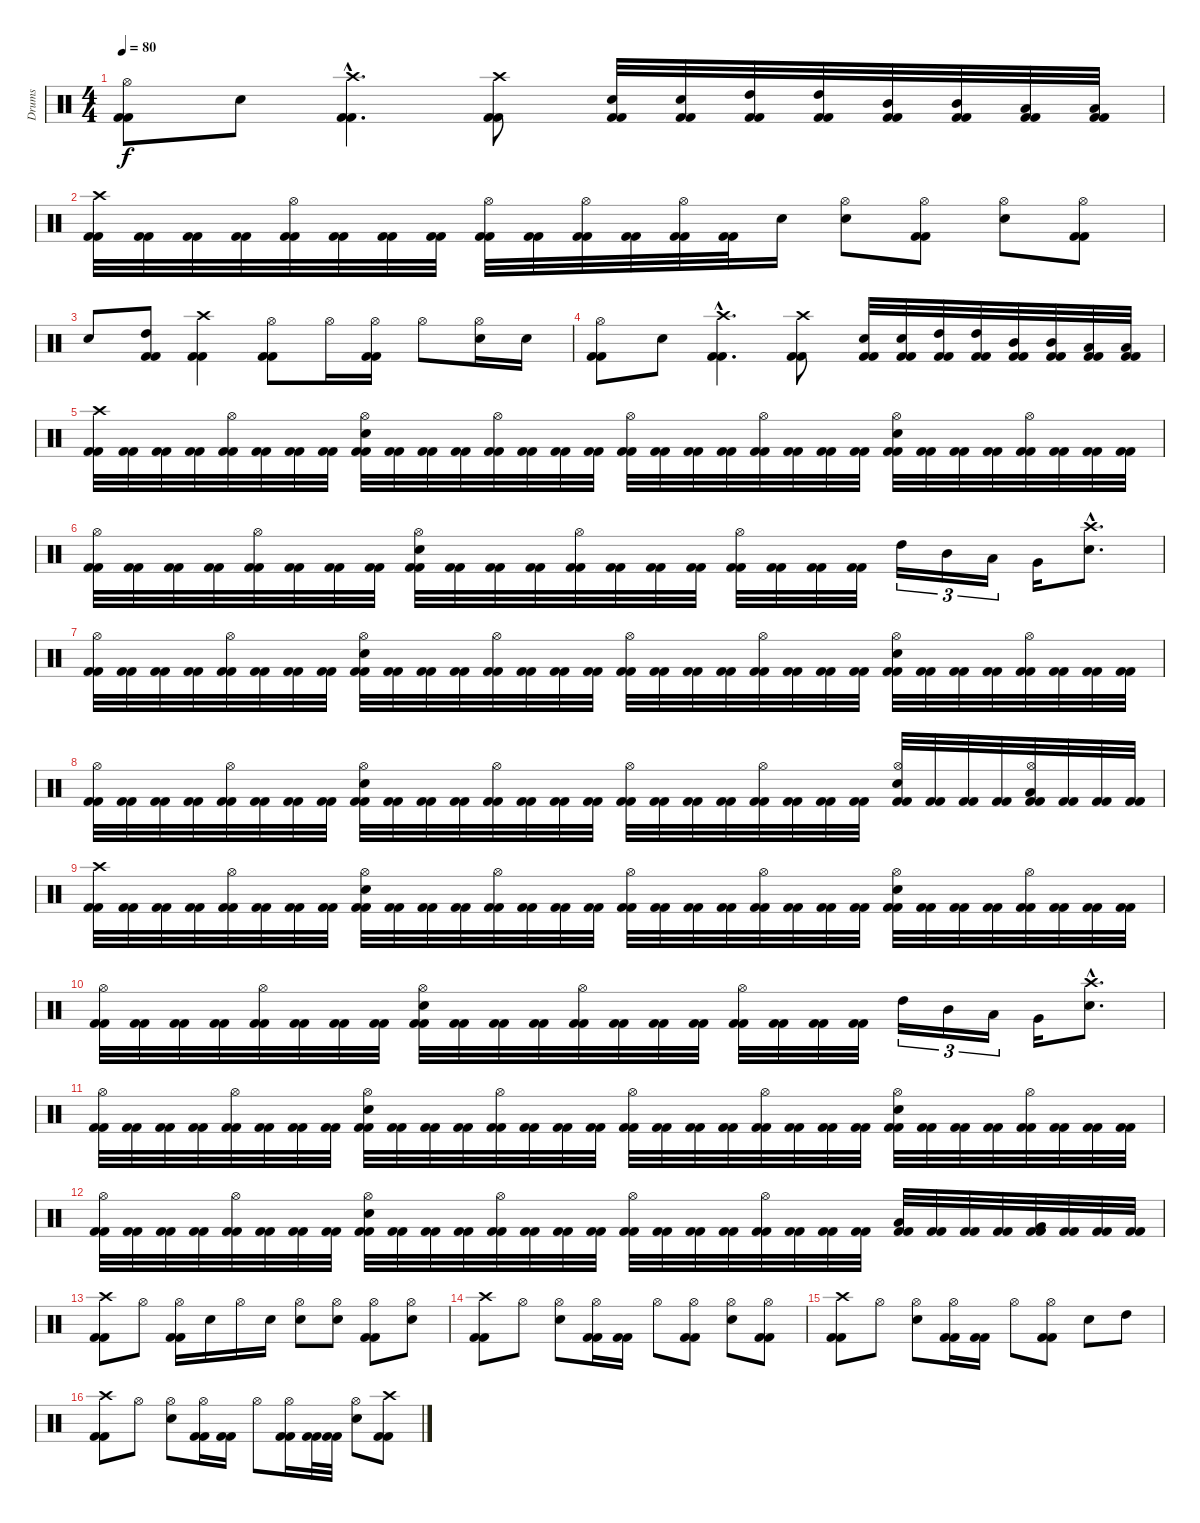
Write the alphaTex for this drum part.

\track ("Drums" "Drums") {instrument percussion}
\staff {score}
\articulation defaults
\ts (4 4)
\tempo 80
\clef neutral
\ks c
("Kick (hit) 2" "Kick (hit) 2" "Hi-Hat (open)").8{dy f} "Snare (hit) 2".8 ("Kick (hit) 2"{hac} "Kick (hit) 2"{hac} "Crash high (hit)"{hac}).4{d} ("Kick (hit) 2" "Kick (hit) 2" "Crash high (hit)").8 ("Kick (hit) 2" "Kick (hit) 2" "Snare (hit) 2").32 ("Kick (hit) 2" "Kick (hit) 2" "Snare (hit) 2").32 ("Kick (hit) 2" "Kick (hit) 2" "High Tom (hit)").32 ("Kick (hit) 2" "Kick (hit) 2" "High Tom (hit)").32 ("Kick (hit) 2" "Kick (hit) 2" "Mid Tom (hit)").32 ("Kick (hit) 2" "Kick (hit) 2" "Mid Tom (hit)").32 ("Kick (hit) 2" "Kick (hit) 2" "Low Tom (hit)").32 ("Kick (hit) 2" "Kick (hit) 2" "Low Tom (hit)").32 |
("Kick (hit) 2" "Kick (hit) 2" "Crash high (hit)").32 ("Kick (hit) 2" "Kick (hit) 2").32 ("Kick (hit) 2" "Kick (hit) 2").32 ("Kick (hit) 2" "Kick (hit) 2").32 ("Kick (hit) 2" "Kick (hit) 2" "Hi-Hat (open)").32 ("Kick (hit) 2" "Kick (hit) 2").32 ("Kick (hit) 2" "Kick (hit) 2").32 ("Kick (hit) 2" "Kick (hit) 2").32 ("Kick (hit) 2" "Kick (hit) 2" "Hi-Hat (open)").32 ("Kick (hit) 2" "Kick (hit) 2").32 ("Kick (hit) 2" "Kick (hit) 2" "Hi-Hat (open)").32 ("Kick (hit) 2" "Kick (hit) 2").32 ("Kick (hit) 2" "Kick (hit) 2" "Hi-Hat (open)").32 ("Kick (hit) 2" "Kick (hit) 2").32 "Snare (hit) 2".16 ("Snare (hit) 2" "Hi-Hat (open)").8 ("Kick (hit) 2" "Kick (hit) 2" "Hi-Hat (open)").8 ("Snare (hit) 2" "Hi-Hat (open)").8 ("Kick (hit) 2" "Kick (hit) 2" "Hi-Hat (open)").8 |
"Snare (hit) 2".8 ("Kick (hit) 2" "Kick (hit) 2" "High Tom (hit)").8 ("Kick (hit) 2" "Kick (hit) 2" "Crash high (hit)").4 ("Kick (hit) 2" "Kick (hit) 2" "Hi-Hat (open)").8 "Hi-Hat (open)".16 ("Kick (hit) 2" "Kick (hit) 2" "Hi-Hat (open)").16 "Hi-Hat (open)".8 ("Snare (hit) 2" "Hi-Hat (open)").16 "Snare (hit) 2".16 |
("Kick (hit) 2" "Kick (hit) 2" "Hi-Hat (open)").8 "Snare (hit) 2".8 ("Kick (hit) 2"{hac} "Kick (hit) 2"{hac} "Crash high (hit)"{hac}).4{d} ("Kick (hit) 2" "Kick (hit) 2" "Crash high (hit)").8 ("Kick (hit) 2" "Kick (hit) 2" "Snare (hit) 2").32 ("Kick (hit) 2" "Kick (hit) 2" "Snare (hit) 2").32 ("Kick (hit) 2" "Kick (hit) 2" "High Tom (hit)").32 ("Kick (hit) 2" "Kick (hit) 2" "High Tom (hit)").32 ("Kick (hit) 2" "Kick (hit) 2" "Mid Tom (hit)").32 ("Kick (hit) 2" "Kick (hit) 2" "Mid Tom (hit)").32 ("Kick (hit) 2" "Kick (hit) 2" "Low Tom (hit)").32 ("Kick (hit) 2" "Kick (hit) 2" "Low Tom (hit)").32 |
("Kick (hit) 2" "Kick (hit) 2" "Crash high (hit)").32 ("Kick (hit) 2" "Kick (hit) 2").32 ("Kick (hit) 2" "Kick (hit) 2").32 ("Kick (hit) 2" "Kick (hit) 2").32 ("Kick (hit) 2" "Kick (hit) 2" "Hi-Hat (open)").32 ("Kick (hit) 2" "Kick (hit) 2").32 ("Kick (hit) 2" "Kick (hit) 2").32 ("Kick (hit) 2" "Kick (hit) 2").32 ("Kick (hit) 2" "Kick (hit) 2" "Snare (hit) 2" "Hi-Hat (open)").32 ("Kick (hit) 2" "Kick (hit) 2").32 ("Kick (hit) 2" "Kick (hit) 2").32 ("Kick (hit) 2" "Kick (hit) 2").32 ("Kick (hit) 2" "Kick (hit) 2" "Hi-Hat (open)").32 ("Kick (hit) 2" "Kick (hit) 2").32 ("Kick (hit) 2" "Kick (hit) 2").32 ("Kick (hit) 2" "Kick (hit) 2").32 ("Kick (hit) 2" "Kick (hit) 2" "Hi-Hat (open)").32 ("Kick (hit) 2" "Kick (hit) 2").32 ("Kick (hit) 2" "Kick (hit) 2").32 ("Kick (hit) 2" "Kick (hit) 2").32 ("Kick (hit) 2" "Kick (hit) 2" "Hi-Hat (open)").32 ("Kick (hit) 2" "Kick (hit) 2").32 ("Kick (hit) 2" "Kick (hit) 2").32 ("Kick (hit) 2" "Kick (hit) 2").32 ("Kick (hit) 2" "Kick (hit) 2" "Snare (hit) 2" "Hi-Hat (open)").32 ("Kick (hit) 2" "Kick (hit) 2").32 ("Kick (hit) 2" "Kick (hit) 2").32 ("Kick (hit) 2" "Kick (hit) 2").32 ("Kick (hit) 2" "Kick (hit) 2" "Hi-Hat (open)").32 ("Kick (hit) 2" "Kick (hit) 2").32 ("Kick (hit) 2" "Kick (hit) 2").32 ("Kick (hit) 2" "Kick (hit) 2").32 |
("Kick (hit) 2" "Kick (hit) 2" "Hi-Hat (open)").32 ("Kick (hit) 2" "Kick (hit) 2").32 ("Kick (hit) 2" "Kick (hit) 2").32 ("Kick (hit) 2" "Kick (hit) 2").32 ("Kick (hit) 2" "Kick (hit) 2" "Hi-Hat (open)").32 ("Kick (hit) 2" "Kick (hit) 2").32 ("Kick (hit) 2" "Kick (hit) 2").32 ("Kick (hit) 2" "Kick (hit) 2").32 ("Kick (hit) 2" "Kick (hit) 2" "Snare (hit) 2" "Hi-Hat (open)").32 ("Kick (hit) 2" "Kick (hit) 2").32 ("Kick (hit) 2" "Kick (hit) 2").32 ("Kick (hit) 2" "Kick (hit) 2").32 ("Kick (hit) 2" "Kick (hit) 2" "Hi-Hat (open)").32 ("Kick (hit) 2" "Kick (hit) 2").32 ("Kick (hit) 2" "Kick (hit) 2").32 ("Kick (hit) 2" "Kick (hit) 2").32 ("Kick (hit) 2" "Kick (hit) 2" "Hi-Hat (open)").32 ("Kick (hit) 2" "Kick (hit) 2").32 ("Kick (hit) 2" "Kick (hit) 2").32 ("Kick (hit) 2" "Kick (hit) 2").32 "High Tom (hit)".16{tu (3 2)} "Mid Tom (hit)".16{tu (3 2)} "Low Tom (hit)".16{tu (3 2)} "Very Low Tom (hit)".16 ("Crash high (hit)"{hac} "Snare (hit) 2"{hac}).8{d} |
("Kick (hit) 2" "Kick (hit) 2" "Hi-Hat (open)").32 ("Kick (hit) 2" "Kick (hit) 2").32 ("Kick (hit) 2" "Kick (hit) 2").32 ("Kick (hit) 2" "Kick (hit) 2").32 ("Kick (hit) 2" "Kick (hit) 2" "Hi-Hat (open)").32 ("Kick (hit) 2" "Kick (hit) 2").32 ("Kick (hit) 2" "Kick (hit) 2").32 ("Kick (hit) 2" "Kick (hit) 2").32 ("Kick (hit) 2" "Kick (hit) 2" "Snare (hit) 2" "Hi-Hat (open)").32 ("Kick (hit) 2" "Kick (hit) 2").32 ("Kick (hit) 2" "Kick (hit) 2").32 ("Kick (hit) 2" "Kick (hit) 2").32 ("Kick (hit) 2" "Kick (hit) 2" "Hi-Hat (open)").32 ("Kick (hit) 2" "Kick (hit) 2").32 ("Kick (hit) 2" "Kick (hit) 2").32 ("Kick (hit) 2" "Kick (hit) 2").32 ("Kick (hit) 2" "Kick (hit) 2" "Hi-Hat (open)").32 ("Kick (hit) 2" "Kick (hit) 2").32 ("Kick (hit) 2" "Kick (hit) 2").32 ("Kick (hit) 2" "Kick (hit) 2").32 ("Kick (hit) 2" "Kick (hit) 2" "Hi-Hat (open)").32 ("Kick (hit) 2" "Kick (hit) 2").32 ("Kick (hit) 2" "Kick (hit) 2").32 ("Kick (hit) 2" "Kick (hit) 2").32 ("Kick (hit) 2" "Kick (hit) 2" "Snare (hit) 2" "Hi-Hat (open)").32 ("Kick (hit) 2" "Kick (hit) 2").32 ("Kick (hit) 2" "Kick (hit) 2").32 ("Kick (hit) 2" "Kick (hit) 2").32 ("Kick (hit) 2" "Kick (hit) 2" "Hi-Hat (open)").32 ("Kick (hit) 2" "Kick (hit) 2").32 ("Kick (hit) 2" "Kick (hit) 2").32 ("Kick (hit) 2" "Kick (hit) 2").32 |
("Kick (hit) 2" "Kick (hit) 2" "Hi-Hat (open)").32 ("Kick (hit) 2" "Kick (hit) 2").32 ("Kick (hit) 2" "Kick (hit) 2").32 ("Kick (hit) 2" "Kick (hit) 2").32 ("Kick (hit) 2" "Kick (hit) 2" "Hi-Hat (open)").32 ("Kick (hit) 2" "Kick (hit) 2").32 ("Kick (hit) 2" "Kick (hit) 2").32 ("Kick (hit) 2" "Kick (hit) 2").32 ("Kick (hit) 2" "Kick (hit) 2" "Snare (hit) 2" "Hi-Hat (open)").32 ("Kick (hit) 2" "Kick (hit) 2").32 ("Kick (hit) 2" "Kick (hit) 2").32 ("Kick (hit) 2" "Kick (hit) 2").32 ("Kick (hit) 2" "Kick (hit) 2" "Hi-Hat (open)").32 ("Kick (hit) 2" "Kick (hit) 2").32 ("Kick (hit) 2" "Kick (hit) 2").32 ("Kick (hit) 2" "Kick (hit) 2").32 ("Kick (hit) 2" "Kick (hit) 2" "Hi-Hat (open)").32 ("Kick (hit) 2" "Kick (hit) 2").32 ("Kick (hit) 2" "Kick (hit) 2").32 ("Kick (hit) 2" "Kick (hit) 2").32 ("Kick (hit) 2" "Kick (hit) 2" "Hi-Hat (open)").32 ("Kick (hit) 2" "Kick (hit) 2").32 ("Kick (hit) 2" "Kick (hit) 2").32 ("Kick (hit) 2" "Kick (hit) 2").32 ("Kick (hit) 2" "Kick (hit) 2" "Snare (hit) 2" "Hi-Hat (open)").32 ("Kick (hit) 2" "Kick (hit) 2").32 ("Kick (hit) 2" "Kick (hit) 2").32 ("Kick (hit) 2" "Kick (hit) 2").32 ("Kick (hit) 2" "Kick (hit) 2" "Low Tom (hit)" "Hi-Hat (open)").32 ("Kick (hit) 2" "Kick (hit) 2").32 ("Kick (hit) 2" "Kick (hit) 2").32 ("Kick (hit) 2" "Kick (hit) 2").32 |
("Kick (hit) 2" "Kick (hit) 2" "Crash high (hit)").32 ("Kick (hit) 2" "Kick (hit) 2").32 ("Kick (hit) 2" "Kick (hit) 2").32 ("Kick (hit) 2" "Kick (hit) 2").32 ("Kick (hit) 2" "Kick (hit) 2" "Hi-Hat (open)").32 ("Kick (hit) 2" "Kick (hit) 2").32 ("Kick (hit) 2" "Kick (hit) 2").32 ("Kick (hit) 2" "Kick (hit) 2").32 ("Kick (hit) 2" "Kick (hit) 2" "Snare (hit) 2" "Hi-Hat (open)").32 ("Kick (hit) 2" "Kick (hit) 2").32 ("Kick (hit) 2" "Kick (hit) 2").32 ("Kick (hit) 2" "Kick (hit) 2").32 ("Kick (hit) 2" "Kick (hit) 2" "Hi-Hat (open)").32 ("Kick (hit) 2" "Kick (hit) 2").32 ("Kick (hit) 2" "Kick (hit) 2").32 ("Kick (hit) 2" "Kick (hit) 2").32 ("Kick (hit) 2" "Kick (hit) 2" "Hi-Hat (open)").32 ("Kick (hit) 2" "Kick (hit) 2").32 ("Kick (hit) 2" "Kick (hit) 2").32 ("Kick (hit) 2" "Kick (hit) 2").32 ("Kick (hit) 2" "Kick (hit) 2" "Hi-Hat (open)").32 ("Kick (hit) 2" "Kick (hit) 2").32 ("Kick (hit) 2" "Kick (hit) 2").32 ("Kick (hit) 2" "Kick (hit) 2").32 ("Kick (hit) 2" "Kick (hit) 2" "Snare (hit) 2" "Hi-Hat (open)").32 ("Kick (hit) 2" "Kick (hit) 2").32 ("Kick (hit) 2" "Kick (hit) 2").32 ("Kick (hit) 2" "Kick (hit) 2").32 ("Kick (hit) 2" "Kick (hit) 2" "Hi-Hat (open)").32 ("Kick (hit) 2" "Kick (hit) 2").32 ("Kick (hit) 2" "Kick (hit) 2").32 ("Kick (hit) 2" "Kick (hit) 2").32 |
("Kick (hit) 2" "Kick (hit) 2" "Hi-Hat (open)").32 ("Kick (hit) 2" "Kick (hit) 2").32 ("Kick (hit) 2" "Kick (hit) 2").32 ("Kick (hit) 2" "Kick (hit) 2").32 ("Kick (hit) 2" "Kick (hit) 2" "Hi-Hat (open)").32 ("Kick (hit) 2" "Kick (hit) 2").32 ("Kick (hit) 2" "Kick (hit) 2").32 ("Kick (hit) 2" "Kick (hit) 2").32 ("Kick (hit) 2" "Kick (hit) 2" "Snare (hit) 2" "Hi-Hat (open)").32 ("Kick (hit) 2" "Kick (hit) 2").32 ("Kick (hit) 2" "Kick (hit) 2").32 ("Kick (hit) 2" "Kick (hit) 2").32 ("Kick (hit) 2" "Kick (hit) 2" "Hi-Hat (open)").32 ("Kick (hit) 2" "Kick (hit) 2").32 ("Kick (hit) 2" "Kick (hit) 2").32 ("Kick (hit) 2" "Kick (hit) 2").32 ("Kick (hit) 2" "Kick (hit) 2" "Hi-Hat (open)").32 ("Kick (hit) 2" "Kick (hit) 2").32 ("Kick (hit) 2" "Kick (hit) 2").32 ("Kick (hit) 2" "Kick (hit) 2").32 "High Tom (hit)".16{tu (3 2)} "Mid Tom (hit)".16{tu (3 2)} "Low Tom (hit)".16{tu (3 2)} "Very Low Tom (hit)".16 ("Crash high (hit)"{hac} "Snare (hit) 2"{hac}).8{d} |
("Kick (hit) 2" "Kick (hit) 2" "Hi-Hat (open)").32 ("Kick (hit) 2" "Kick (hit) 2").32 ("Kick (hit) 2" "Kick (hit) 2").32 ("Kick (hit) 2" "Kick (hit) 2").32 ("Kick (hit) 2" "Kick (hit) 2" "Hi-Hat (open)").32 ("Kick (hit) 2" "Kick (hit) 2").32 ("Kick (hit) 2" "Kick (hit) 2").32 ("Kick (hit) 2" "Kick (hit) 2").32 ("Kick (hit) 2" "Kick (hit) 2" "Snare (hit) 2" "Hi-Hat (open)").32 ("Kick (hit) 2" "Kick (hit) 2").32 ("Kick (hit) 2" "Kick (hit) 2").32 ("Kick (hit) 2" "Kick (hit) 2").32 ("Kick (hit) 2" "Kick (hit) 2" "Hi-Hat (open)").32 ("Kick (hit) 2" "Kick (hit) 2").32 ("Kick (hit) 2" "Kick (hit) 2").32 ("Kick (hit) 2" "Kick (hit) 2").32 ("Kick (hit) 2" "Kick (hit) 2" "Hi-Hat (open)").32 ("Kick (hit) 2" "Kick (hit) 2").32 ("Kick (hit) 2" "Kick (hit) 2").32 ("Kick (hit) 2" "Kick (hit) 2").32 ("Kick (hit) 2" "Kick (hit) 2" "Hi-Hat (open)").32 ("Kick (hit) 2" "Kick (hit) 2").32 ("Kick (hit) 2" "Kick (hit) 2").32 ("Kick (hit) 2" "Kick (hit) 2").32 ("Kick (hit) 2" "Kick (hit) 2" "Snare (hit) 2" "Hi-Hat (open)").32 ("Kick (hit) 2" "Kick (hit) 2").32 ("Kick (hit) 2" "Kick (hit) 2").32 ("Kick (hit) 2" "Kick (hit) 2").32 ("Kick (hit) 2" "Kick (hit) 2" "Hi-Hat (open)").32 ("Kick (hit) 2" "Kick (hit) 2").32 ("Kick (hit) 2" "Kick (hit) 2").32 ("Kick (hit) 2" "Kick (hit) 2").32 |
("Kick (hit) 2" "Kick (hit) 2" "Hi-Hat (open)").32 ("Kick (hit) 2" "Kick (hit) 2").32 ("Kick (hit) 2" "Kick (hit) 2").32 ("Kick (hit) 2" "Kick (hit) 2").32 ("Kick (hit) 2" "Kick (hit) 2" "Hi-Hat (open)").32 ("Kick (hit) 2" "Kick (hit) 2").32 ("Kick (hit) 2" "Kick (hit) 2").32 ("Kick (hit) 2" "Kick (hit) 2").32 ("Kick (hit) 2" "Kick (hit) 2" "Snare (hit) 2" "Hi-Hat (open)").32 ("Kick (hit) 2" "Kick (hit) 2").32 ("Kick (hit) 2" "Kick (hit) 2").32 ("Kick (hit) 2" "Kick (hit) 2").32 ("Kick (hit) 2" "Kick (hit) 2" "Hi-Hat (open)").32 ("Kick (hit) 2" "Kick (hit) 2").32 ("Kick (hit) 2" "Kick (hit) 2").32 ("Kick (hit) 2" "Kick (hit) 2").32 ("Kick (hit) 2" "Kick (hit) 2" "Hi-Hat (open)").32 ("Kick (hit) 2" "Kick (hit) 2").32 ("Kick (hit) 2" "Kick (hit) 2").32 ("Kick (hit) 2" "Kick (hit) 2").32 ("Kick (hit) 2" "Kick (hit) 2" "Hi-Hat (open)").32 ("Kick (hit) 2" "Kick (hit) 2").32 ("Kick (hit) 2" "Kick (hit) 2").32 ("Kick (hit) 2" "Kick (hit) 2").32 ("Kick (hit) 2" "Kick (hit) 2" "Low Tom (hit)").32 ("Kick (hit) 2" "Kick (hit) 2").32 ("Kick (hit) 2" "Kick (hit) 2").32 ("Kick (hit) 2" "Kick (hit) 2").32 ("Kick (hit) 2" "Kick (hit) 2" "Very Low Tom (hit)").32 ("Kick (hit) 2" "Kick (hit) 2").32 ("Kick (hit) 2" "Kick (hit) 2").32 ("Kick (hit) 2" "Kick (hit) 2").32 |
("Kick (hit) 2" "Kick (hit) 2" "Crash high (hit)").8 "Hi-Hat (open)".8 ("Kick (hit) 2" "Kick (hit) 2" "Hi-Hat (open)").16 "Snare (hit) 2".16 "Hi-Hat (open)".16 "Snare (hit) 2".16 ("Snare (hit) 2" "Hi-Hat (open)").8 ("Snare (hit) 2" "Hi-Hat (open)").8 ("Kick (hit) 2" "Kick (hit) 2" "Hi-Hat (open)").8 ("Snare (hit) 2" "Hi-Hat (open)").8 |
("Kick (hit) 2" "Kick (hit) 2" "Crash high (hit)").8 "Hi-Hat (open)".8 ("Snare (hit) 2" "Hi-Hat (open)").8 ("Kick (hit) 2" "Kick (hit) 2" "Hi-Hat (open)").16 ("Kick (hit) 2" "Kick (hit) 2").16 "Hi-Hat (open)".8 ("Kick (hit) 2" "Kick (hit) 2" "Hi-Hat (open)").8 ("Snare (hit) 2" "Hi-Hat (open)").8 ("Kick (hit) 2" "Kick (hit) 2" "Hi-Hat (open)").8 |
("Kick (hit) 2" "Kick (hit) 2" "Crash high (hit)").8 "Hi-Hat (open)".8 ("Snare (hit) 2" "Hi-Hat (open)").8 ("Kick (hit) 2" "Kick (hit) 2" "Hi-Hat (open)").16 ("Kick (hit) 2" "Kick (hit) 2").16 "Hi-Hat (open)".8 ("Kick (hit) 2" "Kick (hit) 2" "Hi-Hat (open)").8 "Snare (hit) 2".8 "High Tom (hit)".8 |
("Kick (hit) 2" "Kick (hit) 2" "Crash high (hit)").8 "Hi-Hat (open)".8 ("Snare (hit) 2" "Hi-Hat (open)").8 ("Kick (hit) 2" "Kick (hit) 2" "Hi-Hat (open)").16 ("Kick (hit) 2" "Kick (hit) 2").16 "Hi-Hat (open)".8 ("Kick (hit) 2" "Kick (hit) 2" "Hi-Hat (open)").16 ("Kick (hit) 2" "Kick (hit) 2").32 ("Kick (hit) 2" "Kick (hit) 2").32 ("Snare (hit) 2" "Hi-Hat (open)").8 ("Kick (hit) 2" "Kick (hit) 2" "Crash high (hit)").8
